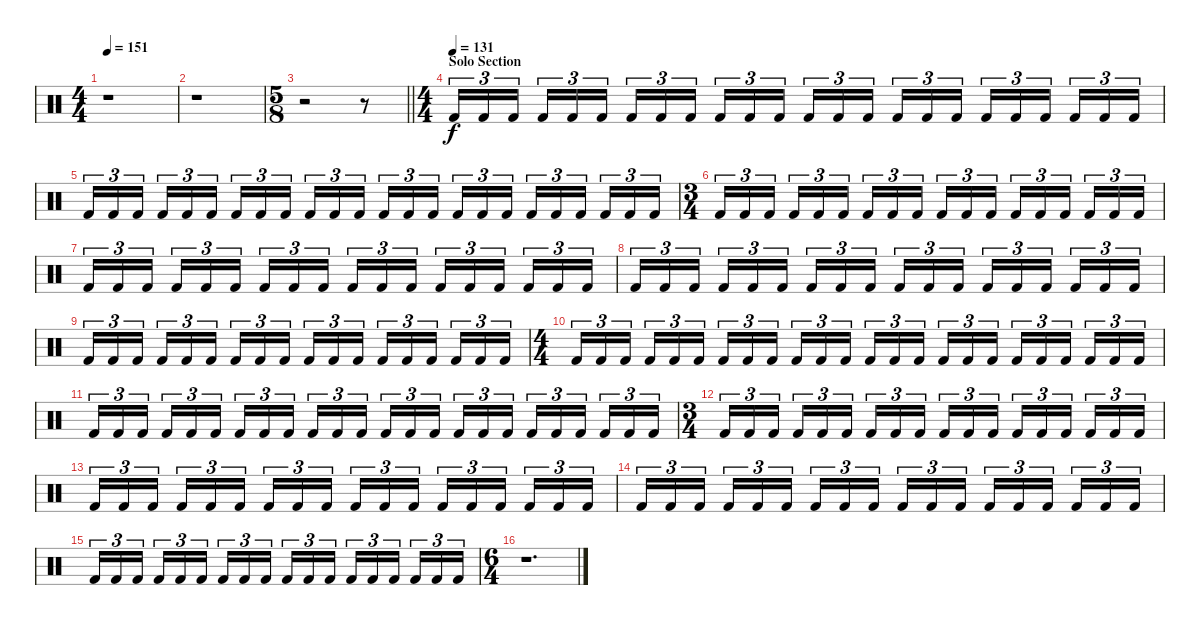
\track "" {instrument percussion}
\staff {score}
\articulation defaults
\ts (4 4)
\tempo 151
\clef neutral
\ks c
r.1{dy f} |
r.1 |
\ts (5 8)
\barLineRight lightlight
r.2 r.8 |
\ts (4 4)
\section ("" "Solo Section ")
\tempo (131)
"Kick (hit) 2".16{tu (3 2)} "Kick (hit) 2".16{tu (3 2)} "Kick (hit) 2".16{tu (3 2) beam splitsecondary} "Kick (hit) 2".16{tu (3 2)} "Kick (hit) 2".16{tu (3 2)} "Kick (hit) 2".16{tu (3 2)} "Kick (hit) 2".16{tu (3 2)} "Kick (hit) 2".16{tu (3 2)} "Kick (hit) 2".16{tu (3 2) beam splitsecondary} "Kick (hit) 2".16{tu (3 2)} "Kick (hit) 2".16{tu (3 2)} "Kick (hit) 2".16{tu (3 2)} "Kick (hit) 2".16{tu (3 2)} "Kick (hit) 2".16{tu (3 2)} "Kick (hit) 2".16{tu (3 2) beam splitsecondary} "Kick (hit) 2".16{tu (3 2)} "Kick (hit) 2".16{tu (3 2)} "Kick (hit) 2".16{tu (3 2)} "Kick (hit) 2".16{tu (3 2)} "Kick (hit) 2".16{tu (3 2)} "Kick (hit) 2".16{tu (3 2) beam splitsecondary} "Kick (hit) 2".16{tu (3 2)} "Kick (hit) 2".16{tu (3 2)} "Kick (hit) 2".16{tu (3 2)} |
"Kick (hit) 2".16{tu (3 2)} "Kick (hit) 2".16{tu (3 2)} "Kick (hit) 2".16{tu (3 2) beam splitsecondary} "Kick (hit) 2".16{tu (3 2)} "Kick (hit) 2".16{tu (3 2)} "Kick (hit) 2".16{tu (3 2)} "Kick (hit) 2".16{tu (3 2)} "Kick (hit) 2".16{tu (3 2)} "Kick (hit) 2".16{tu (3 2) beam splitsecondary} "Kick (hit) 2".16{tu (3 2)} "Kick (hit) 2".16{tu (3 2)} "Kick (hit) 2".16{tu (3 2)} "Kick (hit) 2".16{tu (3 2)} "Kick (hit) 2".16{tu (3 2)} "Kick (hit) 2".16{tu (3 2) beam splitsecondary} "Kick (hit) 2".16{tu (3 2)} "Kick (hit) 2".16{tu (3 2)} "Kick (hit) 2".16{tu (3 2)} "Kick (hit) 2".16{tu (3 2)} "Kick (hit) 2".16{tu (3 2)} "Kick (hit) 2".16{tu (3 2) beam splitsecondary} "Kick (hit) 2".16{tu (3 2)} "Kick (hit) 2".16{tu (3 2)} "Kick (hit) 2".16{tu (3 2)} |
\ts (3 4)
"Kick (hit) 2".16{tu (3 2)} "Kick (hit) 2".16{tu (3 2)} "Kick (hit) 2".16{tu (3 2) beam splitsecondary} "Kick (hit) 2".16{tu (3 2)} "Kick (hit) 2".16{tu (3 2)} "Kick (hit) 2".16{tu (3 2)} "Kick (hit) 2".16{tu (3 2)} "Kick (hit) 2".16{tu (3 2)} "Kick (hit) 2".16{tu (3 2) beam splitsecondary} "Kick (hit) 2".16{tu (3 2)} "Kick (hit) 2".16{tu (3 2)} "Kick (hit) 2".16{tu (3 2)} "Kick (hit) 2".16{tu (3 2)} "Kick (hit) 2".16{tu (3 2)} "Kick (hit) 2".16{tu (3 2) beam splitsecondary} "Kick (hit) 2".16{tu (3 2)} "Kick (hit) 2".16{tu (3 2)} "Kick (hit) 2".16{tu (3 2)} |
"Kick (hit) 2".16{tu (3 2)} "Kick (hit) 2".16{tu (3 2)} "Kick (hit) 2".16{tu (3 2) beam splitsecondary} "Kick (hit) 2".16{tu (3 2)} "Kick (hit) 2".16{tu (3 2)} "Kick (hit) 2".16{tu (3 2)} "Kick (hit) 2".16{tu (3 2)} "Kick (hit) 2".16{tu (3 2)} "Kick (hit) 2".16{tu (3 2) beam splitsecondary} "Kick (hit) 2".16{tu (3 2)} "Kick (hit) 2".16{tu (3 2)} "Kick (hit) 2".16{tu (3 2)} "Kick (hit) 2".16{tu (3 2)} "Kick (hit) 2".16{tu (3 2)} "Kick (hit) 2".16{tu (3 2) beam splitsecondary} "Kick (hit) 2".16{tu (3 2)} "Kick (hit) 2".16{tu (3 2)} "Kick (hit) 2".16{tu (3 2)} |
"Kick (hit) 2".16{tu (3 2)} "Kick (hit) 2".16{tu (3 2)} "Kick (hit) 2".16{tu (3 2) beam splitsecondary} "Kick (hit) 2".16{tu (3 2)} "Kick (hit) 2".16{tu (3 2)} "Kick (hit) 2".16{tu (3 2)} "Kick (hit) 2".16{tu (3 2)} "Kick (hit) 2".16{tu (3 2)} "Kick (hit) 2".16{tu (3 2) beam splitsecondary} "Kick (hit) 2".16{tu (3 2)} "Kick (hit) 2".16{tu (3 2)} "Kick (hit) 2".16{tu (3 2)} "Kick (hit) 2".16{tu (3 2)} "Kick (hit) 2".16{tu (3 2)} "Kick (hit) 2".16{tu (3 2) beam splitsecondary} "Kick (hit) 2".16{tu (3 2)} "Kick (hit) 2".16{tu (3 2)} "Kick (hit) 2".16{tu (3 2)} |
"Kick (hit) 2".16{tu (3 2)} "Kick (hit) 2".16{tu (3 2)} "Kick (hit) 2".16{tu (3 2) beam splitsecondary} "Kick (hit) 2".16{tu (3 2)} "Kick (hit) 2".16{tu (3 2)} "Kick (hit) 2".16{tu (3 2)} "Kick (hit) 2".16{tu (3 2)} "Kick (hit) 2".16{tu (3 2)} "Kick (hit) 2".16{tu (3 2) beam splitsecondary} "Kick (hit) 2".16{tu (3 2)} "Kick (hit) 2".16{tu (3 2)} "Kick (hit) 2".16{tu (3 2)} "Kick (hit) 2".16{tu (3 2)} "Kick (hit) 2".16{tu (3 2)} "Kick (hit) 2".16{tu (3 2) beam splitsecondary} "Kick (hit) 2".16{tu (3 2)} "Kick (hit) 2".16{tu (3 2)} "Kick (hit) 2".16{tu (3 2)} |
\ts (4 4)
"Kick (hit) 2".16{tu (3 2)} "Kick (hit) 2".16{tu (3 2)} "Kick (hit) 2".16{tu (3 2) beam splitsecondary} "Kick (hit) 2".16{tu (3 2)} "Kick (hit) 2".16{tu (3 2)} "Kick (hit) 2".16{tu (3 2)} "Kick (hit) 2".16{tu (3 2)} "Kick (hit) 2".16{tu (3 2)} "Kick (hit) 2".16{tu (3 2) beam splitsecondary} "Kick (hit) 2".16{tu (3 2)} "Kick (hit) 2".16{tu (3 2)} "Kick (hit) 2".16{tu (3 2)} "Kick (hit) 2".16{tu (3 2)} "Kick (hit) 2".16{tu (3 2)} "Kick (hit) 2".16{tu (3 2) beam splitsecondary} "Kick (hit) 2".16{tu (3 2)} "Kick (hit) 2".16{tu (3 2)} "Kick (hit) 2".16{tu (3 2)} "Kick (hit) 2".16{tu (3 2)} "Kick (hit) 2".16{tu (3 2)} "Kick (hit) 2".16{tu (3 2) beam splitsecondary} "Kick (hit) 2".16{tu (3 2)} "Kick (hit) 2".16{tu (3 2)} "Kick (hit) 2".16{tu (3 2)} |
"Kick (hit) 2".16{tu (3 2)} "Kick (hit) 2".16{tu (3 2)} "Kick (hit) 2".16{tu (3 2) beam splitsecondary} "Kick (hit) 2".16{tu (3 2)} "Kick (hit) 2".16{tu (3 2)} "Kick (hit) 2".16{tu (3 2)} "Kick (hit) 2".16{tu (3 2)} "Kick (hit) 2".16{tu (3 2)} "Kick (hit) 2".16{tu (3 2) beam splitsecondary} "Kick (hit) 2".16{tu (3 2)} "Kick (hit) 2".16{tu (3 2)} "Kick (hit) 2".16{tu (3 2)} "Kick (hit) 2".16{tu (3 2)} "Kick (hit) 2".16{tu (3 2)} "Kick (hit) 2".16{tu (3 2) beam splitsecondary} "Kick (hit) 2".16{tu (3 2)} "Kick (hit) 2".16{tu (3 2)} "Kick (hit) 2".16{tu (3 2)} "Kick (hit) 2".16{tu (3 2)} "Kick (hit) 2".16{tu (3 2)} "Kick (hit) 2".16{tu (3 2) beam splitsecondary} "Kick (hit) 2".16{tu (3 2)} "Kick (hit) 2".16{tu (3 2)} "Kick (hit) 2".16{tu (3 2)} |
\ts (3 4)
"Kick (hit) 2".16{tu (3 2)} "Kick (hit) 2".16{tu (3 2)} "Kick (hit) 2".16{tu (3 2) beam splitsecondary} "Kick (hit) 2".16{tu (3 2)} "Kick (hit) 2".16{tu (3 2)} "Kick (hit) 2".16{tu (3 2)} "Kick (hit) 2".16{tu (3 2)} "Kick (hit) 2".16{tu (3 2)} "Kick (hit) 2".16{tu (3 2) beam splitsecondary} "Kick (hit) 2".16{tu (3 2)} "Kick (hit) 2".16{tu (3 2)} "Kick (hit) 2".16{tu (3 2)} "Kick (hit) 2".16{tu (3 2)} "Kick (hit) 2".16{tu (3 2)} "Kick (hit) 2".16{tu (3 2) beam splitsecondary} "Kick (hit) 2".16{tu (3 2)} "Kick (hit) 2".16{tu (3 2)} "Kick (hit) 2".16{tu (3 2)} |
"Kick (hit) 2".16{tu (3 2)} "Kick (hit) 2".16{tu (3 2)} "Kick (hit) 2".16{tu (3 2) beam splitsecondary} "Kick (hit) 2".16{tu (3 2)} "Kick (hit) 2".16{tu (3 2)} "Kick (hit) 2".16{tu (3 2)} "Kick (hit) 2".16{tu (3 2)} "Kick (hit) 2".16{tu (3 2)} "Kick (hit) 2".16{tu (3 2) beam splitsecondary} "Kick (hit) 2".16{tu (3 2)} "Kick (hit) 2".16{tu (3 2)} "Kick (hit) 2".16{tu (3 2)} "Kick (hit) 2".16{tu (3 2)} "Kick (hit) 2".16{tu (3 2)} "Kick (hit) 2".16{tu (3 2) beam splitsecondary} "Kick (hit) 2".16{tu (3 2)} "Kick (hit) 2".16{tu (3 2)} "Kick (hit) 2".16{tu (3 2)} |
"Kick (hit) 2".16{tu (3 2)} "Kick (hit) 2".16{tu (3 2)} "Kick (hit) 2".16{tu (3 2) beam splitsecondary} "Kick (hit) 2".16{tu (3 2)} "Kick (hit) 2".16{tu (3 2)} "Kick (hit) 2".16{tu (3 2)} "Kick (hit) 2".16{tu (3 2)} "Kick (hit) 2".16{tu (3 2)} "Kick (hit) 2".16{tu (3 2) beam splitsecondary} "Kick (hit) 2".16{tu (3 2)} "Kick (hit) 2".16{tu (3 2)} "Kick (hit) 2".16{tu (3 2)} "Kick (hit) 2".16{tu (3 2)} "Kick (hit) 2".16{tu (3 2)} "Kick (hit) 2".16{tu (3 2) beam splitsecondary} "Kick (hit) 2".16{tu (3 2)} "Kick (hit) 2".16{tu (3 2)} "Kick (hit) 2".16{tu (3 2)} |
"Kick (hit) 2".16{tu (3 2)} "Kick (hit) 2".16{tu (3 2)} "Kick (hit) 2".16{tu (3 2) beam splitsecondary} "Kick (hit) 2".16{tu (3 2)} "Kick (hit) 2".16{tu (3 2)} "Kick (hit) 2".16{tu (3 2)} "Kick (hit) 2".16{tu (3 2)} "Kick (hit) 2".16{tu (3 2)} "Kick (hit) 2".16{tu (3 2) beam splitsecondary} "Kick (hit) 2".16{tu (3 2)} "Kick (hit) 2".16{tu (3 2)} "Kick (hit) 2".16{tu (3 2)} "Kick (hit) 2".16{tu (3 2)} "Kick (hit) 2".16{tu (3 2)} "Kick (hit) 2".16{tu (3 2) beam splitsecondary} "Kick (hit) 2".16{tu (3 2)} "Kick (hit) 2".16{tu (3 2)} "Kick (hit) 2".16{tu (3 2)} |
\ts (6 4)
r.1{d}
